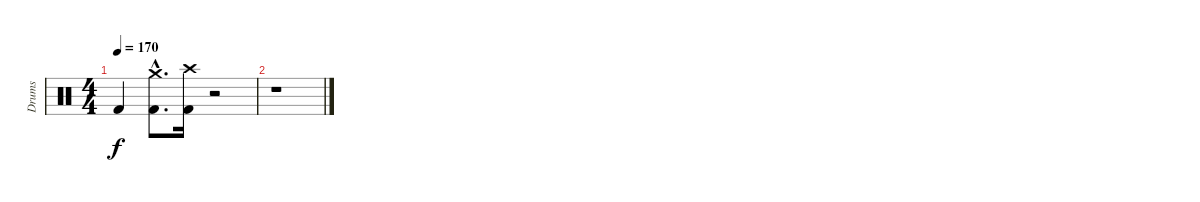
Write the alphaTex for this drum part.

\track ("Drums" "Drums") {instrument percussion}
\staff {score}
\articulation defaults
\ts (4 4)
\tempo 170
\clef neutral
\ks c "Kick (hit) 2".4{dy f}
("Crash medium (hit)"{hac} "Kick (hit) 2"{hac}).8{d} ("Crash high (hit)" "Kick (hit) 2").16 r.2 |
r.1
